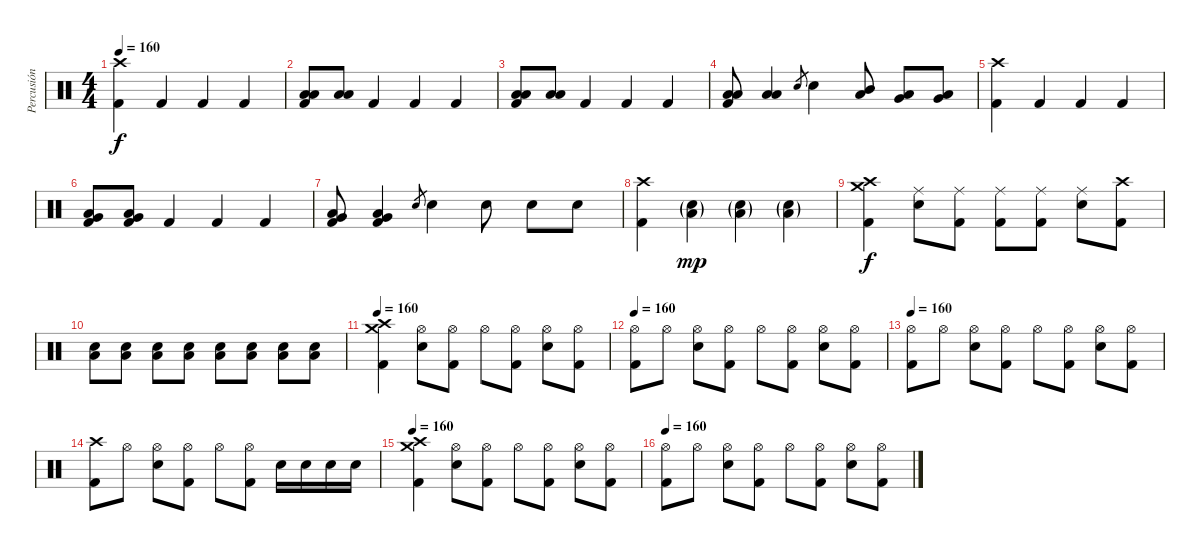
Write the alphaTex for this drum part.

\track ("Percusión" "Percusión") {instrument percussion}
\staff {score}
\articulation defaults
\ts (4 4)
\tempo 160
\clef neutral
\ks c
("Crash high (hit)" "Kick (hit) 2").4{dy f} "Kick (hit) 2".4 "Kick (hit) 2".4 "Kick (hit) 2".4 |
("Low Tom (hit)" "Low Floor Tom (hit)" "Kick (hit) 2").8 ("Low Tom (hit)" "Low Floor Tom (hit)").8 "Kick (hit) 2".4 "Kick (hit) 2".4 "Kick (hit) 2".4 |
("Low Tom (hit)" "Low Floor Tom (hit)" "Kick (hit) 2").8 ("Low Tom (hit)" "Low Floor Tom (hit)").8 "Kick (hit) 2".4 "Kick (hit) 2".4 "Kick (hit) 2".4 |
("Low Tom (hit)" "Low Floor Tom (hit)" "Kick (hit) 2").8 ("Low Tom (hit)" "Low Floor Tom (hit)").4 "Snare (hit) 2".8{gr} "Snare (hit) 2".4 ("Mid Tom (hit)" "Low Tom (hit)").8 ("Low Tom (hit)" "Very Low Tom (hit)").8 ("Very Low Tom (hit)" "Low Floor Tom (hit)").8 |
("Crash high (hit)" "Kick (hit) 2").4 "Kick (hit) 2".4 "Kick (hit) 2".4 "Kick (hit) 2".4 |
("Low Floor Tom (hit)" "Very Low Tom (hit)" "Kick (hit) 2").8 ("Low Floor Tom (hit)" "Very Low Tom (hit)" "Kick (hit) 2").8 "Kick (hit) 2".4 "Kick (hit) 2".4 "Kick (hit) 2".4 |
("Low Floor Tom (hit)" "Very Low Tom (hit)" "Kick (hit) 2").8 ("Low Floor Tom (hit)" "Very Low Tom (hit)" "Kick (hit) 2").4 "Snare (hit) 2".8{gr} "Snare (hit) 2".4 "Snare (hit) 2".8 "Snare (hit) 2".8 "Snare (hit) 2".8 |
("Crash high (hit)" "Kick (hit) 2").4 ("Snare (hit) 2"{g} "Low Floor Tom (hit)"{g}).4{dy mp} ("Snare (hit) 2"{g} "Low Floor Tom (hit)"{g}).4 ("Snare (hit) 2"{g} "Low Floor Tom (hit)"{g}).4 |
("Crash high (hit)" "Crash medium (hit)" "Kick (hit) 2").4{dy f} ("Ride (middle)" "Snare (hit) 2").8 ("Ride (middle)" "Kick (hit) 2").8 ("Ride (middle)" "Kick (hit) 2").8 ("Ride (middle)" "Kick (hit) 2").8 ("Ride (middle)" "Snare (hit) 2").8 ("Crash high (hit)" "Kick (hit) 2").8 |
("Snare (hit) 2" "Low Floor Tom (hit)").8 ("Snare (hit) 2" "Low Floor Tom (hit)").8 ("Snare (hit) 2" "Low Floor Tom (hit)").8 ("Snare (hit) 2" "Low Floor Tom (hit)").8 ("Snare (hit) 2" "Low Floor Tom (hit)").8 ("Snare (hit) 2" "Low Floor Tom (hit)").8 ("Snare (hit) 2" "Low Floor Tom (hit)").8 ("Snare (hit) 2" "Low Floor Tom (hit)").8 |
\tempo 160
("Crash high (hit)" "Crash medium (hit)" "Kick (hit) 2").4 ("Hi-Hat (open)" "Snare (hit) 2").8 ("Hi-Hat (open)" "Kick (hit) 2").8 "Hi-Hat (open)".8 ("Hi-Hat (open)" "Kick (hit) 2").8 ("Hi-Hat (open)" "Snare (hit) 2").8 ("Hi-Hat (open)" "Kick (hit) 2").8 |
\tempo 160
("Hi-Hat (open)" "Kick (hit) 2").8 "Hi-Hat (open)".8 ("Hi-Hat (open)" "Snare (hit) 2").8 ("Hi-Hat (open)" "Kick (hit) 2").8 "Hi-Hat (open)".8 ("Hi-Hat (open)" "Kick (hit) 2").8 ("Hi-Hat (open)" "Snare (hit) 2").8 ("Hi-Hat (open)" "Kick (hit) 2").8 |
\tempo 160
("Hi-Hat (open)" "Kick (hit) 2").8 "Hi-Hat (open)".8 ("Hi-Hat (open)" "Snare (hit) 2").8 ("Hi-Hat (open)" "Kick (hit) 2").8 "Hi-Hat (open)".8 ("Hi-Hat (open)" "Kick (hit) 2").8 ("Hi-Hat (open)" "Snare (hit) 2").8 ("Hi-Hat (open)" "Kick (hit) 2").8 |
("Crash high (hit)" "Kick (hit) 2").8 "Hi-Hat (open)".8 ("Hi-Hat (open)" "Snare (hit) 2").8 ("Hi-Hat (open)" "Kick (hit) 2").8 "Hi-Hat (open)".8 ("Hi-Hat (open)" "Kick (hit) 2").8 "Snare (hit) 2".16 "Snare (hit) 2".16 "Snare (hit) 2".16 "Snare (hit) 2".16 |
\tempo 160
("Crash high (hit)" "Crash medium (hit)" "Kick (hit) 2").4 ("Hi-Hat (open)" "Snare (hit) 2").8 ("Hi-Hat (open)" "Kick (hit) 2").8 "Hi-Hat (open)".8 ("Hi-Hat (open)" "Kick (hit) 2").8 ("Hi-Hat (open)" "Snare (hit) 2").8 ("Hi-Hat (open)" "Kick (hit) 2").8 |
\tempo 160
("Hi-Hat (open)" "Kick (hit) 2").8 "Hi-Hat (open)".8 ("Hi-Hat (open)" "Snare (hit) 2").8 ("Hi-Hat (open)" "Kick (hit) 2").8 "Hi-Hat (open)".8 ("Hi-Hat (open)" "Kick (hit) 2").8 ("Hi-Hat (open)" "Snare (hit) 2").8 ("Hi-Hat (open)" "Kick (hit) 2").8
